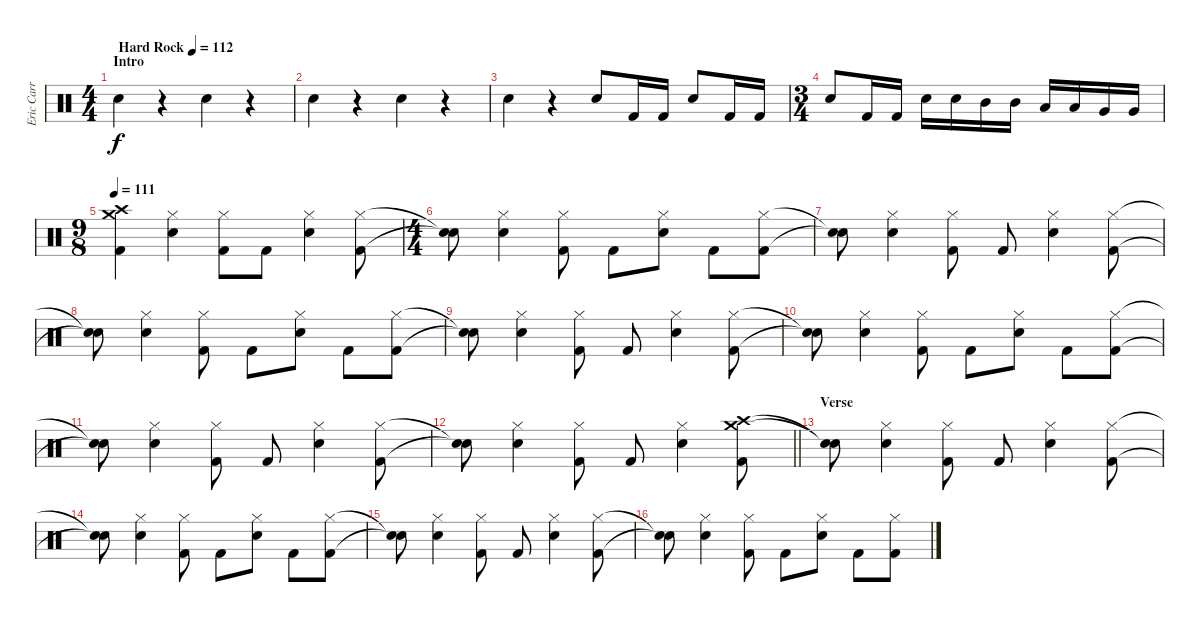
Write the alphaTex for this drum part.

\track ("Eric Carr" "Eric Carr") {instrument percussion}
\staff {score}
\articulation defaults
\ts (4 4)
\section ("" "Intro")
\tempo (112 "Hard Rock")
\clef neutral
\ks c "Snare (hit) 2".4{dy f}
r.4 "Snare (hit) 2".4 r.4 |
"Snare (hit) 2".4 r.4 "Snare (hit) 2".4 r.4 |
"Snare (hit) 2".4 r.4 "Snare (hit) 2".8 "Kick (hit) 2".16 "Kick (hit) 2".16 "Snare (hit) 2".8 "Kick (hit) 2".16 "Kick (hit) 2".16 |
\ts (3 4)
"Snare (hit) 2".8 "Kick (hit) 2".16 "Kick (hit) 2".16 "Snare (hit) 2".16 "Snare (hit) 2".16 "Mid Tom (hit)".16 "Mid Tom (hit)".16 "Low Tom (hit)".16 "Low Tom (hit)".16 "Very Low Tom (hit)".16 "Very Low Tom (hit)".16 |
\ts (9 8)
\tempo 111
("Crash medium (hit)" "Crash high (hit)" "Kick (hit) 2").4 ("Hi-Hat (closed)" "Snare (hit) 2").4 ("Hi-Hat (closed)" "Kick (hit) 2").8 "Kick (hit) 2".8 ("Hi-Hat (closed)" "Snare (hit) 2").4 ("Hi-Hat (closed)" "Kick (hit) 2").8 |
\ts (4 4)
("Snare (hit)"{t} "Snare (hit)"{t}).8 ("Hi-Hat (closed)" "Snare (hit) 2").4 ("Hi-Hat (closed)" "Kick (hit) 2").8 "Kick (hit) 2".8 ("Hi-Hat (closed)" "Snare (hit) 2").8 "Kick (hit) 2".8 ("Hi-Hat (closed)" "Kick (hit) 2").8 |
("Snare (hit)"{t} "Snare (hit)"{t}).8 ("Hi-Hat (closed)" "Snare (hit) 2").4 ("Hi-Hat (closed)" "Kick (hit) 2").8 "Kick (hit) 2".8 ("Hi-Hat (closed)" "Snare (hit) 2").4 ("Hi-Hat (closed)" "Kick (hit) 2").8 |
("Snare (hit)"{t} "Snare (hit)"{t}).8 ("Hi-Hat (closed)" "Snare (hit) 2").4 ("Hi-Hat (closed)" "Kick (hit) 2").8 "Kick (hit) 2".8 ("Hi-Hat (closed)" "Snare (hit) 2").8 "Kick (hit) 2".8 ("Hi-Hat (closed)" "Kick (hit) 2").8 |
("Snare (hit)"{t} "Snare (hit)"{t}).8 ("Hi-Hat (closed)" "Snare (hit) 2").4 ("Hi-Hat (closed)" "Kick (hit) 2").8 "Kick (hit) 2".8 ("Hi-Hat (closed)" "Snare (hit) 2").4 ("Hi-Hat (closed)" "Kick (hit) 2").8 |
("Snare (hit)"{t} "Snare (hit)"{t}).8 ("Hi-Hat (closed)" "Snare (hit) 2").4 ("Hi-Hat (closed)" "Kick (hit) 2").8 "Kick (hit) 2".8 ("Hi-Hat (closed)" "Snare (hit) 2").8 "Kick (hit) 2".8 ("Hi-Hat (closed)" "Kick (hit) 2").8 |
("Snare (hit)"{t} "Snare (hit)"{t}).8 ("Hi-Hat (closed)" "Snare (hit) 2").4 ("Hi-Hat (closed)" "Kick (hit) 2").8 "Kick (hit) 2".8 ("Hi-Hat (closed)" "Snare (hit) 2").4 ("Hi-Hat (closed)" "Kick (hit) 2").8 |
\barLineRight lightlight
("Snare (hit)"{t} "Snare (hit)"{t}).8 ("Hi-Hat (closed)" "Snare (hit) 2").4 ("Hi-Hat (closed)" "Kick (hit) 2").8 "Kick (hit) 2".8 ("Hi-Hat (closed)" "Snare (hit) 2").4 ("Crash medium (hit)" "Crash high (hit)" "Kick (hit) 2").8 |
\section ("" "Verse")
("Snare (hit)"{t} "Snare (hit)"{t}).8 ("Hi-Hat (closed)" "Snare (hit) 2").4 ("Hi-Hat (closed)" "Kick (hit) 2").8 "Kick (hit) 2".8 ("Hi-Hat (closed)" "Snare (hit) 2").4 ("Hi-Hat (closed)" "Kick (hit) 2").8 |
("Snare (hit)"{t} "Snare (hit)"{t}).8 ("Hi-Hat (closed)" "Snare (hit) 2").4 ("Hi-Hat (closed)" "Kick (hit) 2").8 "Kick (hit) 2".8 ("Hi-Hat (closed)" "Snare (hit) 2").8 "Kick (hit) 2".8 ("Hi-Hat (closed)" "Kick (hit) 2").8 |
("Snare (hit)"{t} "Snare (hit)"{t}).8 ("Hi-Hat (closed)" "Snare (hit) 2").4 ("Hi-Hat (closed)" "Kick (hit) 2").8 "Kick (hit) 2".8 ("Hi-Hat (closed)" "Snare (hit) 2").4 ("Hi-Hat (closed)" "Kick (hit) 2").8 |
("Snare (hit)"{t} "Snare (hit)"{t}).8 ("Hi-Hat (closed)" "Snare (hit) 2").4 ("Hi-Hat (closed)" "Kick (hit) 2").8 "Kick (hit) 2".8 ("Hi-Hat (closed)" "Snare (hit) 2").8 "Kick (hit) 2".8 ("Hi-Hat (closed)" "Kick (hit) 2").8
